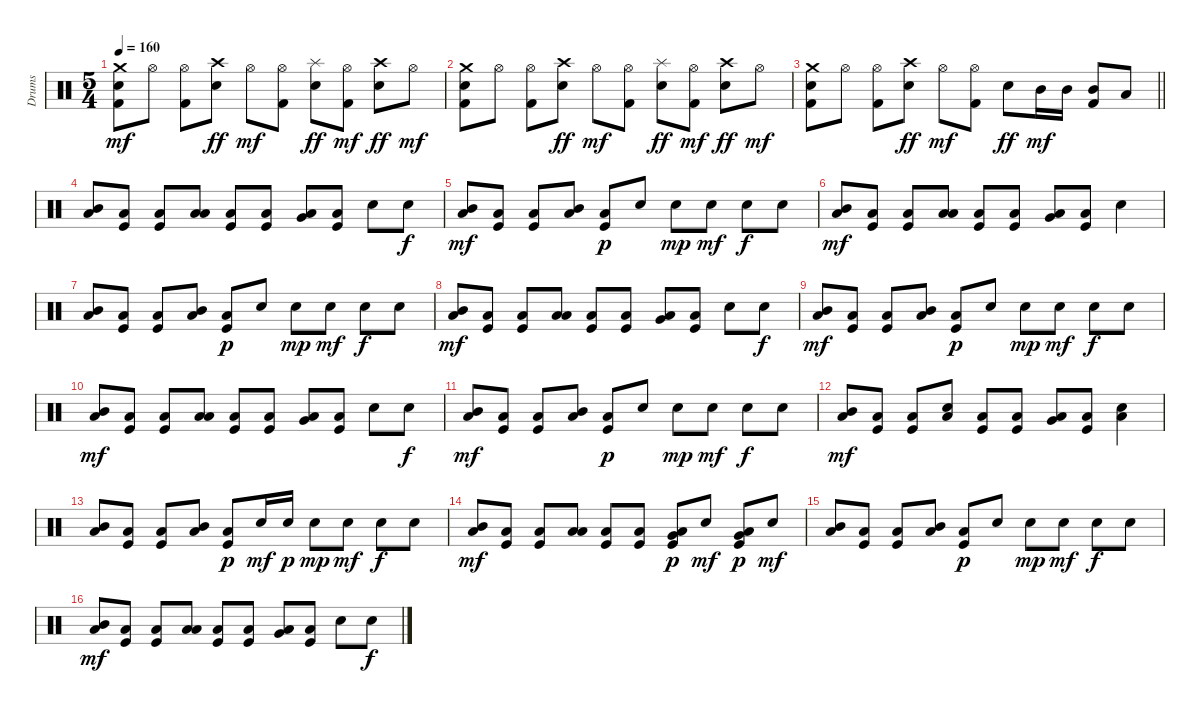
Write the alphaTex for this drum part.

\track ("Drums" "Drums") {instrument percussion bank 127}
\staff {score}
\articulation defaults
\ts (5 4)
\tempo 160
\clef neutral
\ks c
("Crash medium (hit)" "Snare (hit) 2" "Kick (hit) 2").8{dy mf} "Hi-Hat (open)".8 ("Hi-Hat (open)" "Kick (hit) 2").8 ("Crash high (hit)" "Snare (hit) 2").8{dy ff} "Hi-Hat (open)".8{dy mf} ("Hi-Hat (open)" "Kick (hit) 2").8 ("Splash (hit)" "Snare (hit) 2").8{dy ff} ("Hi-Hat (open)" "Kick (hit) 2").8{dy mf} ("Crash high (hit)" "Snare (hit) 2").8{dy ff} "Hi-Hat (open)".8{dy mf} |
("Crash medium (hit)" "Snare (hit) 2" "Kick (hit) 2").8 "Hi-Hat (open)".8 ("Hi-Hat (open)" "Kick (hit) 2").8 ("Crash high (hit)" "Snare (hit) 2").8{dy ff} "Hi-Hat (open)".8{dy mf} ("Hi-Hat (open)" "Kick (hit) 2").8 ("Splash (hit)" "Snare (hit) 2").8{dy ff} ("Hi-Hat (open)" "Kick (hit) 2").8{dy mf} ("Crash high (hit)" "Snare (hit) 2").8{dy ff} "Hi-Hat (open)".8{dy mf} |
\barLineRight lightlight
("Crash medium (hit)" "Snare (hit) 2" "Kick (hit) 2").8 "Hi-Hat (open)".8 ("Hi-Hat (open)" "Kick (hit) 2").8 ("Crash high (hit)" "Snare (hit) 2").8{dy ff} "Hi-Hat (open)".8{dy mf} ("Hi-Hat (open)" "Kick (hit) 2").8 "Snare (hit) 2".8{dy ff} "Mid Tom (hit)".16{dy mf} "Mid Tom (hit)".16 ("Mid Tom (hit)" "Kick (hit) 2").8 "Low Tom (hit)".8 |
("Mid Tom (hit)" "Low Tom (hit)").8 ("Low Floor Tom (hit)" "Kick (hit)").8 ("Low Floor Tom (hit)" "Kick (hit)").8 ("Low Tom (hit)" "Low Tom (hit)").8 ("Low Floor Tom (hit)" "Kick (hit)").8 ("Low Floor Tom (hit)" "Kick (hit)").8 ("Very Low Tom (hit)" "Low Tom (hit)").8 ("Low Floor Tom (hit)" "Kick (hit)").8 "Snare (hit) 2".8 "Snare (hit) 2".8{dy f} |
("Mid Tom (hit)" "Low Floor Tom (hit)").8{dy mf} ("Low Floor Tom (hit)" "Kick (hit)").8 ("Low Floor Tom (hit)" "Kick (hit)").8 ("Mid Tom (hit)" "Low Floor Tom (hit)").8 ("Low Floor Tom (hit)" "Kick (hit)").8{dy p} "Snare (hit) 2".8 "Snare (hit) 2".8{dy mp} "Snare (hit) 2".8{dy mf} "Snare (hit) 2".8{dy f} "Snare (hit) 2".8 |
("Mid Tom (hit)" "Low Tom (hit)").8{dy mf} ("Low Floor Tom (hit)" "Kick (hit)").8 ("Low Floor Tom (hit)" "Kick (hit)").8 ("Low Tom (hit)" "Low Tom (hit)").8 ("Low Floor Tom (hit)" "Kick (hit)").8 ("Low Floor Tom (hit)" "Kick (hit)").8 ("Very Low Tom (hit)" "Low Tom (hit)").8 ("Low Floor Tom (hit)" "Kick (hit)").8 "Snare (hit) 2".4 |
("Mid Tom (hit)" "Low Floor Tom (hit)").8 ("Low Floor Tom (hit)" "Kick (hit)").8 ("Low Floor Tom (hit)" "Kick (hit)").8 ("Mid Tom (hit)" "Low Floor Tom (hit)").8 ("Low Floor Tom (hit)" "Kick (hit)").8{dy p} "Snare (hit) 2".8 "Snare (hit) 2".8{dy mp} "Snare (hit) 2".8{dy mf} "Snare (hit) 2".8{dy f} "Snare (hit) 2".8 |
("Mid Tom (hit)" "Low Tom (hit)").8{dy mf} ("Low Floor Tom (hit)" "Kick (hit)").8 ("Low Floor Tom (hit)" "Kick (hit)").8 ("Low Tom (hit)" "Low Tom (hit)").8 ("Low Floor Tom (hit)" "Kick (hit)").8 ("Low Floor Tom (hit)" "Kick (hit)").8 ("Very Low Tom (hit)" "Low Tom (hit)").8 ("Low Floor Tom (hit)" "Kick (hit)").8 "Snare (hit) 2".8 "Snare (hit) 2".8{dy f} |
("Mid Tom (hit)" "Low Floor Tom (hit)").8{dy mf} ("Low Floor Tom (hit)" "Kick (hit)").8 ("Low Floor Tom (hit)" "Kick (hit)").8 ("Mid Tom (hit)" "Low Floor Tom (hit)").8 ("Low Floor Tom (hit)" "Kick (hit)").8{dy p} "Snare (hit) 2".8 "Snare (hit) 2".8{dy mp} "Snare (hit) 2".8{dy mf} "Snare (hit) 2".8{dy f} "Snare (hit) 2".8 |
("Mid Tom (hit)" "Low Tom (hit)").8{dy mf} ("Low Floor Tom (hit)" "Kick (hit)").8 ("Low Floor Tom (hit)" "Kick (hit)").8 ("Low Tom (hit)" "Low Tom (hit)").8 ("Low Floor Tom (hit)" "Kick (hit)").8 ("Low Floor Tom (hit)" "Kick (hit)").8 ("Very Low Tom (hit)" "Low Tom (hit)").8 ("Low Floor Tom (hit)" "Kick (hit)").8 "Snare (hit) 2".8 "Snare (hit) 2".8{dy f} |
("Mid Tom (hit)" "Low Floor Tom (hit)").8{dy mf} ("Low Floor Tom (hit)" "Kick (hit)").8 ("Low Floor Tom (hit)" "Kick (hit)").8 ("Mid Tom (hit)" "Low Floor Tom (hit)").8 ("Low Floor Tom (hit)" "Kick (hit)").8{dy p} "Snare (hit) 2".8 "Snare (hit) 2".8{dy mp} "Snare (hit) 2".8{dy mf} "Snare (hit) 2".8{dy f} "Snare (hit) 2".8 |
("Mid Tom (hit)" "Low Tom (hit)").8{dy mf} ("Low Floor Tom (hit)" "Kick (hit)").8 ("Low Floor Tom (hit)" "Kick (hit)").8 ("Low Tom (hit)" "Snare (hit) 2").8 ("Low Floor Tom (hit)" "Kick (hit)").8 ("Low Floor Tom (hit)" "Kick (hit)").8 ("Very Low Tom (hit)" "Low Tom (hit)").8 ("Low Floor Tom (hit)" "Kick (hit)").8 ("Low Tom (hit)" "Snare (hit) 2").4 |
("Mid Tom (hit)" "Low Floor Tom (hit)").8 ("Low Floor Tom (hit)" "Kick (hit)").8 ("Low Floor Tom (hit)" "Kick (hit)").8 ("Mid Tom (hit)" "Low Floor Tom (hit)").8 ("Low Floor Tom (hit)" "Kick (hit)").8{dy p} "Snare (hit) 2".16{dy mf} "Snare (hit) 2".16{dy p} "Snare (hit) 2".8{dy mp} "Snare (hit) 2".8{dy mf} "Snare (hit) 2".8{dy f} "Snare (hit) 2".8 |
("Mid Tom (hit)" "Low Tom (hit)").8{dy mf} ("Low Floor Tom (hit)" "Kick (hit)").8 ("Low Floor Tom (hit)" "Kick (hit)").8 ("Low Tom (hit)" "Low Tom (hit)").8 ("Low Floor Tom (hit)" "Kick (hit)").8 ("Low Floor Tom (hit)" "Kick (hit)").8 ("Very Low Tom (hit)" "Low Tom (hit)" "Kick (hit)").8{dy p} "Snare (hit) 2".8{dy mf} ("Very Low Tom (hit)" "Low Tom (hit)" "Kick (hit)").8{dy p} "Snare (hit) 2".8{dy mf} |
("Mid Tom (hit)" "Low Floor Tom (hit)").8 ("Low Floor Tom (hit)" "Kick (hit)").8 ("Low Floor Tom (hit)" "Kick (hit)").8 ("Mid Tom (hit)" "Low Floor Tom (hit)").8 ("Low Floor Tom (hit)" "Kick (hit)").8{dy p} "Snare (hit) 2".8 "Snare (hit) 2".8{dy mp} "Snare (hit) 2".8{dy mf} "Snare (hit) 2".8{dy f} "Snare (hit) 2".8 |
("Mid Tom (hit)" "Low Tom (hit)").8{dy mf} ("Low Floor Tom (hit)" "Kick (hit)").8 ("Low Floor Tom (hit)" "Kick (hit)").8 ("Low Tom (hit)" "Low Tom (hit)").8 ("Low Floor Tom (hit)" "Kick (hit)").8 ("Low Floor Tom (hit)" "Kick (hit)").8 ("Very Low Tom (hit)" "Low Tom (hit)").8 ("Low Floor Tom (hit)" "Kick (hit)").8 "Snare (hit) 2".8 "Snare (hit) 2".8{dy f}
